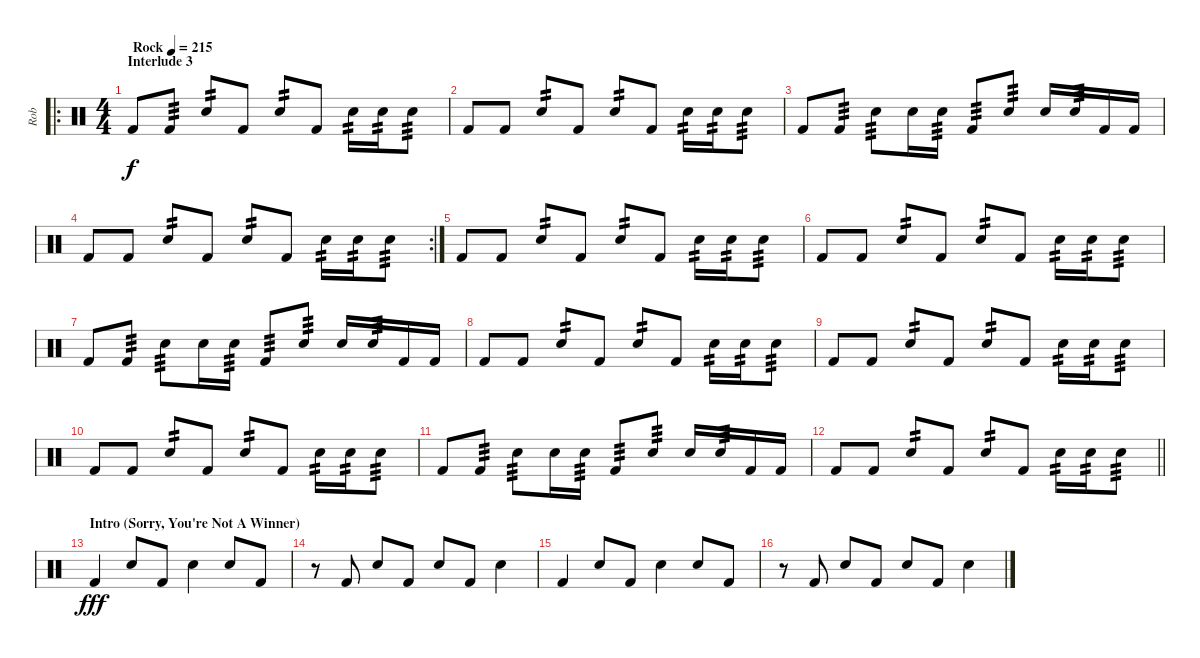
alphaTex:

\track ("Rob" "Rob") {instrument percussion}
\staff {score}
\articulation defaults
\ro
\ts (4 4)
\section ("" "Interlude 3")
\tempo (215 "Rock")
\clef neutral
\ks c "Kick (hit) 2".8{dy f} "Kick (hit) 2".8{tp 3} "Snare (hit) 2".8{tp 2} "Kick (hit) 2".8 "Snare (hit) 2".8{tp 2} "Kick (hit) 2".8 "Snare (hit) 2".16{tp 2} "Snare (hit) 2".16{tp 2} "Snare (hit) 2".8{tp 3}
|
"Kick (hit) 2".8 "Kick (hit) 2".8 "Snare (hit) 2".8{tp 2} "Kick (hit) 2".8 "Snare (hit) 2".8{tp 2} "Kick (hit) 2".8 "Snare (hit) 2".16{tp 2} "Snare (hit) 2".16{tp 2} "Snare (hit) 2".8{tp 3} |
"Kick (hit) 2".8 "Kick (hit) 2".8{tp 3} "Snare (hit) 2".8{tp 3} "Snare (hit) 2".16 "Snare (hit) 2".16{tp 3} "Kick (hit) 2".8{tp 3} "Snare (hit) 2".8{tp 3} "Snare (hit) 2".16 "Snare (hit) 2".16{tp 3} "Kick (hit) 2".16 "Kick (hit) 2".16 |
\rc 2 "Kick (hit) 2".8 "Kick (hit) 2".8 "Snare (hit) 2".8{tp 2} "Kick (hit) 2".8 "Snare (hit) 2".8{tp 2} "Kick (hit) 2".8 "Snare (hit) 2".16{tp 2} "Snare (hit) 2".16{tp 2} "Snare (hit) 2".8{tp 3}
|
"Kick (hit) 2".8 "Kick (hit) 2".8 "Snare (hit) 2".8{tp 2} "Kick (hit) 2".8 "Snare (hit) 2".8{tp 2} "Kick (hit) 2".8 "Snare (hit) 2".16{tp 2} "Snare (hit) 2".16{tp 2} "Snare (hit) 2".8{tp 3} |
"Kick (hit) 2".8 "Kick (hit) 2".8 "Snare (hit) 2".8{tp 2} "Kick (hit) 2".8 "Snare (hit) 2".8{tp 2} "Kick (hit) 2".8 "Snare (hit) 2".16{tp 2} "Snare (hit) 2".16{tp 2} "Snare (hit) 2".8{tp 3} |
"Kick (hit) 2".8 "Kick (hit) 2".8{tp 3} "Snare (hit) 2".8{tp 3} "Snare (hit) 2".16 "Snare (hit) 2".16{tp 3} "Kick (hit) 2".8{tp 3} "Snare (hit) 2".8{tp 3} "Snare (hit) 2".16 "Snare (hit) 2".16{tp 3} "Kick (hit) 2".16 "Kick (hit) 2".16 |
"Kick (hit) 2".8 "Kick (hit) 2".8 "Snare (hit) 2".8{tp 2} "Kick (hit) 2".8 "Snare (hit) 2".8{tp 2} "Kick (hit) 2".8 "Snare (hit) 2".16{tp 2} "Snare (hit) 2".16{tp 2} "Snare (hit) 2".8{tp 3} |
"Kick (hit) 2".8 "Kick (hit) 2".8 "Snare (hit) 2".8{tp 2} "Kick (hit) 2".8 "Snare (hit) 2".8{tp 2} "Kick (hit) 2".8 "Snare (hit) 2".16{tp 2} "Snare (hit) 2".16{tp 2} "Snare (hit) 2".8{tp 3} |
"Kick (hit) 2".8 "Kick (hit) 2".8 "Snare (hit) 2".8{tp 2} "Kick (hit) 2".8 "Snare (hit) 2".8{tp 2} "Kick (hit) 2".8 "Snare (hit) 2".16{tp 2} "Snare (hit) 2".16{tp 2} "Snare (hit) 2".8{tp 3} |
"Kick (hit) 2".8 "Kick (hit) 2".8{tp 3} "Snare (hit) 2".8{tp 3} "Snare (hit) 2".16 "Snare (hit) 2".16{tp 3} "Kick (hit) 2".8{tp 3} "Snare (hit) 2".8{tp 3} "Snare (hit) 2".16 "Snare (hit) 2".16{tp 3} "Kick (hit) 2".16 "Kick (hit) 2".16 |
\barLineRight lightlight "Kick (hit) 2".8 "Kick (hit) 2".8 "Snare (hit) 2".8{tp 2} "Kick (hit) 2".8 "Snare (hit) 2".8{tp 2} "Kick (hit) 2".8 "Snare (hit) 2".16{tp 2} "Snare (hit) 2".16{tp 2} "Snare (hit) 2".8{tp 3}
|
\section ("" "Intro (Sorry, You're Not A Winner)")
"Kick (hit) 2".4{dy fff volume 8} "Electric Snare (hit)".8 "Kick (hit) 2".8 "Electric Snare (hit)".4 "Electric Snare (hit)".8 "Kick (hit) 2".8 |
r.8 "Kick (hit) 2".8 "Electric Snare (hit)".8 "Kick (hit) 2".8 "Electric Snare (hit)".8 "Kick (hit) 2".8 "Electric Snare (hit)".4 |
"Kick (hit) 2".4 "Electric Snare (hit)".8 "Kick (hit) 2".8 "Electric Snare (hit)".4 "Electric Snare (hit)".8 "Kick (hit) 2".8 |
r.8 "Kick (hit) 2".8 "Electric Snare (hit)".8 "Kick (hit) 2".8 "Electric Snare (hit)".8 "Kick (hit) 2".8 "Electric Snare (hit)".4
